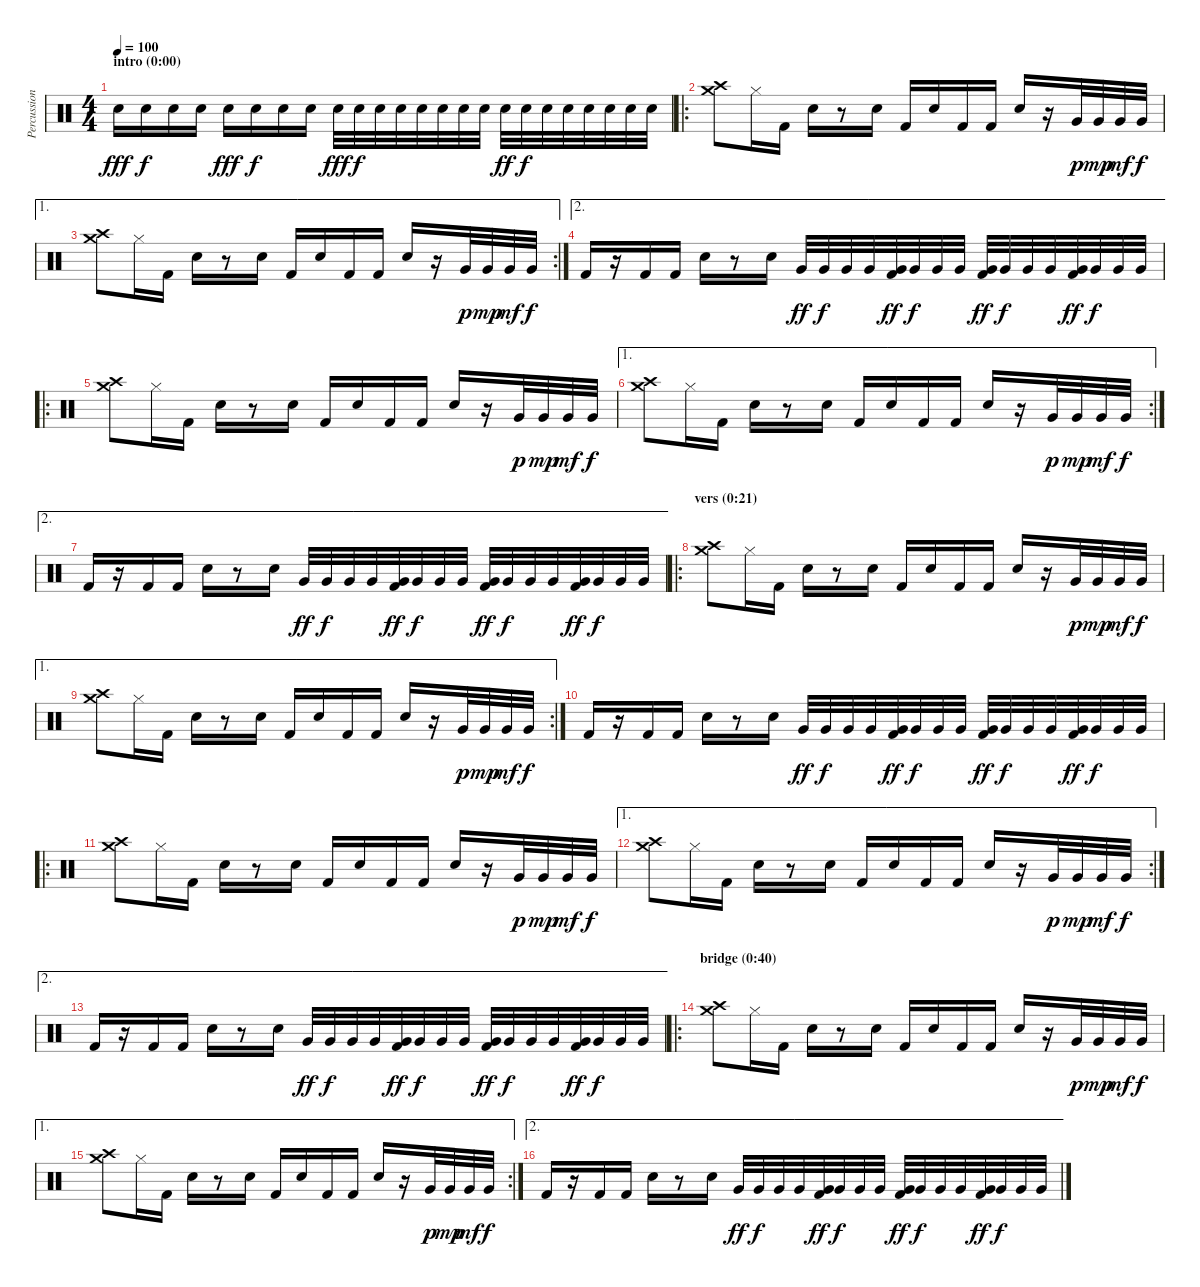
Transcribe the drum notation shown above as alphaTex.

\track ("Percussion (Matt)" "Percussion") {instrument percussion}
\staff {score}
\articulation defaults
\ts (4 4)
\section ("" "intro (0:00)")
\tempo 100
\clef neutral
\ks c "Snare (hit) 2".16{dy fff} "Snare (hit) 2".16{dy f} "Snare (hit) 2".16 "Snare (hit) 2".16 "Snare (hit) 2".16{dy fff} "Snare (hit) 2".16{dy f} "Snare (hit) 2".16 "Snare (hit) 2".16 "Snare (hit) 2".32{dy fff} "Snare (hit) 2".32{dy f} "Snare (hit) 2".32 "Snare (hit) 2".32 "Snare (hit) 2".32 "Snare (hit) 2".32 "Snare (hit) 2".32 "Snare (hit) 2".32 "Snare (hit) 2".32{dy ff} "Snare (hit) 2".32{dy f} "Snare (hit) 2".32 "Snare (hit) 2".32 "Snare (hit) 2".32 "Snare (hit) 2".32 "Snare (hit) 2".32 "Snare (hit) 2".32
|
\ro
("Crash high (hit)" "Crash medium (hit)").8 "Hi-Hat (closed)".16 "Kick (hit) 2".16 "Snare (hit) 2".16 r.8 "Snare (hit) 2".16 "Kick (hit) 2".16 "Snare (hit) 2".16 "Kick (hit) 2".16 "Kick (hit) 2".16 "Snare (hit) 2".16 r.16 "Very Low Tom (hit)".32{dy p} "Very Low Tom (hit)".32{dy mp} "Very Low Tom (hit)".32{dy mf} "Very Low Tom (hit)".32{dy f} |
\ae 1
\rc 2
("Crash high (hit)" "Crash medium (hit)").8 "Hi-Hat (closed)".16 "Kick (hit) 2".16 "Snare (hit) 2".16 r.8 "Snare (hit) 2".16 "Kick (hit) 2".16 "Snare (hit) 2".16 "Kick (hit) 2".16 "Kick (hit) 2".16 "Snare (hit) 2".16 r.16 "Very Low Tom (hit)".32{dy p} "Very Low Tom (hit)".32{dy mp} "Very Low Tom (hit)".32{dy mf} "Very Low Tom (hit)".32{dy f} |
\ae 2 "Kick (hit) 2".16
r.16 "Kick (hit) 2".16 "Kick (hit) 2".16 "Snare (hit) 2".16 r.8 "Snare (hit) 2".16 "Very Low Tom (hit)".32{dy ff} "Very Low Tom (hit)".32{dy f} "Very Low Tom (hit)".32 "Very Low Tom (hit)".32 ("Very Low Tom (hit)" "Kick (hit) 2").32{dy ff} "Very Low Tom (hit)".32{dy f} "Very Low Tom (hit)".32 "Very Low Tom (hit)".32 ("Very Low Tom (hit)" "Kick (hit) 2").32{dy ff} "Very Low Tom (hit)".32{dy f} "Very Low Tom (hit)".32 "Very Low Tom (hit)".32 ("Very Low Tom (hit)" "Kick (hit) 2").32{dy ff} "Very Low Tom (hit)".32{dy f} "Very Low Tom (hit)".32 "Very Low Tom (hit)".32 |
\ro
("Crash high (hit)" "Crash medium (hit)").8 "Hi-Hat (closed)".16 "Kick (hit) 2".16 "Snare (hit) 2".16 r.8 "Snare (hit) 2".16 "Kick (hit) 2".16 "Snare (hit) 2".16 "Kick (hit) 2".16 "Kick (hit) 2".16 "Snare (hit) 2".16 r.16 "Very Low Tom (hit)".32{dy p} "Very Low Tom (hit)".32{dy mp} "Very Low Tom (hit)".32{dy mf} "Very Low Tom (hit)".32{dy f} |
\ae 1
\rc 2
("Crash high (hit)" "Crash medium (hit)").8 "Hi-Hat (closed)".16 "Kick (hit) 2".16 "Snare (hit) 2".16 r.8 "Snare (hit) 2".16 "Kick (hit) 2".16 "Snare (hit) 2".16 "Kick (hit) 2".16 "Kick (hit) 2".16 "Snare (hit) 2".16 r.16 "Very Low Tom (hit)".32{dy p} "Very Low Tom (hit)".32{dy mp} "Very Low Tom (hit)".32{dy mf} "Very Low Tom (hit)".32{dy f} |
\ae 2 "Kick (hit) 2".16
r.16 "Kick (hit) 2".16 "Kick (hit) 2".16 "Snare (hit) 2".16 r.8 "Snare (hit) 2".16 "Very Low Tom (hit)".32{dy ff} "Very Low Tom (hit)".32{dy f} "Very Low Tom (hit)".32 "Very Low Tom (hit)".32 ("Very Low Tom (hit)" "Kick (hit) 2").32{dy ff} "Very Low Tom (hit)".32{dy f} "Very Low Tom (hit)".32 "Very Low Tom (hit)".32 ("Very Low Tom (hit)" "Kick (hit) 2").32{dy ff} "Very Low Tom (hit)".32{dy f} "Very Low Tom (hit)".32 "Very Low Tom (hit)".32 ("Very Low Tom (hit)" "Kick (hit) 2").32{dy ff} "Very Low Tom (hit)".32{dy f} "Very Low Tom (hit)".32 "Very Low Tom (hit)".32 |
\ro
\section ("" "vers (0:21)")
("Crash high (hit)" "Crash medium (hit)").8 "Hi-Hat (closed)".16 "Kick (hit) 2".16 "Snare (hit) 2".16 r.8 "Snare (hit) 2".16 "Kick (hit) 2".16 "Snare (hit) 2".16 "Kick (hit) 2".16 "Kick (hit) 2".16 "Snare (hit) 2".16 r.16 "Very Low Tom (hit)".32{dy p} "Very Low Tom (hit)".32{dy mp} "Very Low Tom (hit)".32{dy mf} "Very Low Tom (hit)".32{dy f} |
\ae 1
\rc 2
("Crash high (hit)" "Crash medium (hit)").8 "Hi-Hat (closed)".16 "Kick (hit) 2".16 "Snare (hit) 2".16 r.8 "Snare (hit) 2".16 "Kick (hit) 2".16 "Snare (hit) 2".16 "Kick (hit) 2".16 "Kick (hit) 2".16 "Snare (hit) 2".16 r.16 "Very Low Tom (hit)".32{dy p} "Very Low Tom (hit)".32{dy mp} "Very Low Tom (hit)".32{dy mf} "Very Low Tom (hit)".32{dy f} |
"Kick (hit) 2".16 r.16 "Kick (hit) 2".16 "Kick (hit) 2".16 "Snare (hit) 2".16 r.8 "Snare (hit) 2".16 "Very Low Tom (hit)".32{dy ff} "Very Low Tom (hit)".32{dy f} "Very Low Tom (hit)".32 "Very Low Tom (hit)".32 ("Very Low Tom (hit)" "Kick (hit) 2").32{dy ff} "Very Low Tom (hit)".32{dy f} "Very Low Tom (hit)".32 "Very Low Tom (hit)".32 ("Very Low Tom (hit)" "Kick (hit) 2").32{dy ff} "Very Low Tom (hit)".32{dy f} "Very Low Tom (hit)".32 "Very Low Tom (hit)".32 ("Very Low Tom (hit)" "Kick (hit) 2").32{dy ff} "Very Low Tom (hit)".32{dy f} "Very Low Tom (hit)".32 "Very Low Tom (hit)".32 |
\ro
("Crash high (hit)" "Crash medium (hit)").8 "Hi-Hat (closed)".16 "Kick (hit) 2".16 "Snare (hit) 2".16 r.8 "Snare (hit) 2".16 "Kick (hit) 2".16 "Snare (hit) 2".16 "Kick (hit) 2".16 "Kick (hit) 2".16 "Snare (hit) 2".16 r.16 "Very Low Tom (hit)".32{dy p} "Very Low Tom (hit)".32{dy mp} "Very Low Tom (hit)".32{dy mf} "Very Low Tom (hit)".32{dy f} |
\ae 1
\rc 2
("Crash high (hit)" "Crash medium (hit)").8 "Hi-Hat (closed)".16 "Kick (hit) 2".16 "Snare (hit) 2".16 r.8 "Snare (hit) 2".16 "Kick (hit) 2".16 "Snare (hit) 2".16 "Kick (hit) 2".16 "Kick (hit) 2".16 "Snare (hit) 2".16 r.16 "Very Low Tom (hit)".32{dy p} "Very Low Tom (hit)".32{dy mp} "Very Low Tom (hit)".32{dy mf} "Very Low Tom (hit)".32{dy f} |
\ae 2 "Kick (hit) 2".16
r.16 "Kick (hit) 2".16 "Kick (hit) 2".16 "Snare (hit) 2".16 r.8 "Snare (hit) 2".16 "Very Low Tom (hit)".32{dy ff} "Very Low Tom (hit)".32{dy f} "Very Low Tom (hit)".32 "Very Low Tom (hit)".32 ("Very Low Tom (hit)" "Kick (hit) 2").32{dy ff} "Very Low Tom (hit)".32{dy f} "Very Low Tom (hit)".32 "Very Low Tom (hit)".32 ("Very Low Tom (hit)" "Kick (hit) 2").32{dy ff} "Very Low Tom (hit)".32{dy f} "Very Low Tom (hit)".32 "Very Low Tom (hit)".32 ("Very Low Tom (hit)" "Kick (hit) 2").32{dy ff} "Very Low Tom (hit)".32{dy f} "Very Low Tom (hit)".32 "Very Low Tom (hit)".32 |
\ro
\section ("" "bridge (0:40)")
("Crash high (hit)" "Crash medium (hit)").8 "Hi-Hat (closed)".16 "Kick (hit) 2".16 "Snare (hit) 2".16 r.8 "Snare (hit) 2".16 "Kick (hit) 2".16 "Snare (hit) 2".16 "Kick (hit) 2".16 "Kick (hit) 2".16 "Snare (hit) 2".16 r.16 "Very Low Tom (hit)".32{dy p} "Very Low Tom (hit)".32{dy mp} "Very Low Tom (hit)".32{dy mf} "Very Low Tom (hit)".32{dy f} |
\ae 1
\rc 2
("Crash high (hit)" "Crash medium (hit)").8 "Hi-Hat (closed)".16 "Kick (hit) 2".16 "Snare (hit) 2".16 r.8 "Snare (hit) 2".16 "Kick (hit) 2".16 "Snare (hit) 2".16 "Kick (hit) 2".16 "Kick (hit) 2".16 "Snare (hit) 2".16 r.16 "Very Low Tom (hit)".32{dy p} "Very Low Tom (hit)".32{dy mp} "Very Low Tom (hit)".32{dy mf} "Very Low Tom (hit)".32{dy f} |
\ae 2 "Kick (hit) 2".16
r.16 "Kick (hit) 2".16 "Kick (hit) 2".16 "Snare (hit) 2".16 r.8 "Snare (hit) 2".16 "Very Low Tom (hit)".32{dy ff} "Very Low Tom (hit)".32{dy f} "Very Low Tom (hit)".32 "Very Low Tom (hit)".32 ("Very Low Tom (hit)" "Kick (hit) 2").32{dy ff} "Very Low Tom (hit)".32{dy f} "Very Low Tom (hit)".32 "Very Low Tom (hit)".32 ("Very Low Tom (hit)" "Kick (hit) 2").32{dy ff} "Very Low Tom (hit)".32{dy f} "Very Low Tom (hit)".32 "Very Low Tom (hit)".32 ("Very Low Tom (hit)" "Kick (hit) 2").32{dy ff} "Very Low Tom (hit)".32{dy f} "Very Low Tom (hit)".32 "Very Low Tom (hit)".32
